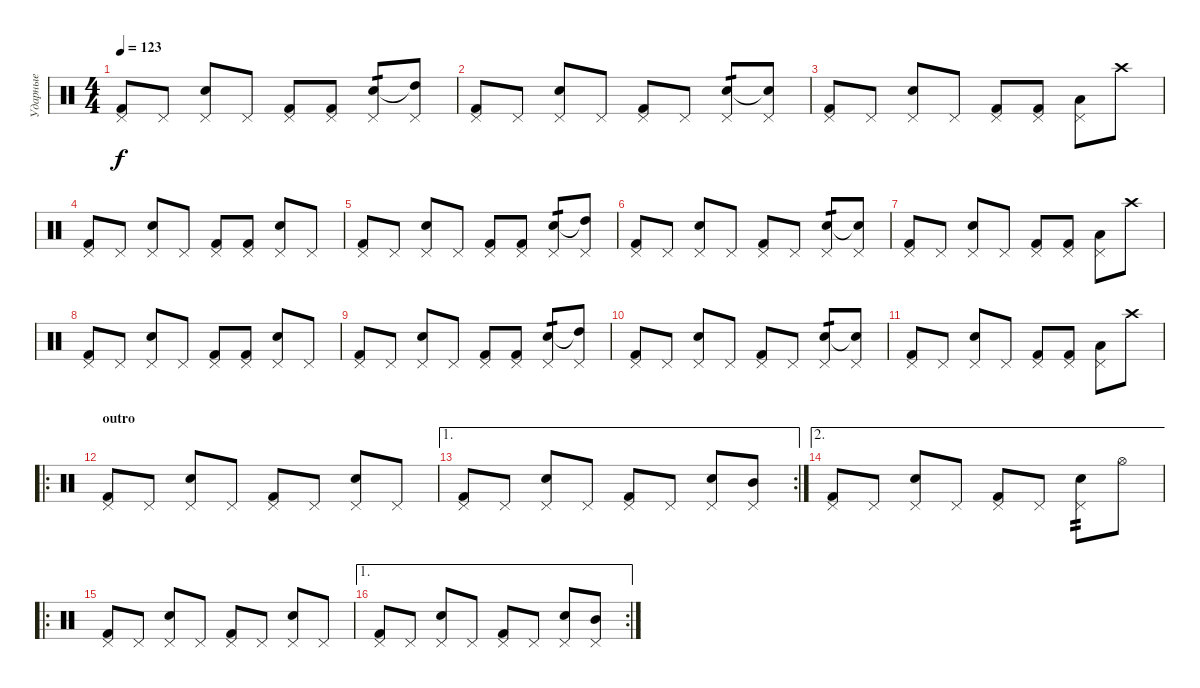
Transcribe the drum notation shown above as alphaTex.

\track ("Ударные" "Ударные") {instrument percussion}
\staff {score}
\articulation defaults
\ts (4 4)
\tempo 123
\clef neutral
\ks c
("Pedal Hi-Hat (hit)" "Kick (hit) 2").8{dy f} "Pedal Hi-Hat (hit)".8 ("Pedal Hi-Hat (hit)" "Snare (hit) 2").8 "Pedal Hi-Hat (hit)".8 ("Pedal Hi-Hat (hit)" "Kick (hit) 2").8 ("Pedal Hi-Hat (hit)" "Kick (hit) 2").8 ("Pedal Hi-Hat (hit)" "Snare (hit) 2").8{tp 1} ("Pedal Hi-Hat (hit)" "High Tom (hit)"{t}).8 |
("Pedal Hi-Hat (hit)" "Kick (hit) 2").8 "Pedal Hi-Hat (hit)".8 ("Pedal Hi-Hat (hit)" "Snare (hit) 2").8 "Pedal Hi-Hat (hit)".8 ("Pedal Hi-Hat (hit)" "Kick (hit) 2").8 "Pedal Hi-Hat (hit)".8 ("Pedal Hi-Hat (hit)" "Snare (hit) 2").8{tp 1} ("Pedal Hi-Hat (hit)" "Snare (hit)"{t}).8 |
("Pedal Hi-Hat (hit)" "Kick (hit) 2").8 "Pedal Hi-Hat (hit)".8 ("Pedal Hi-Hat (hit)" "Snare (hit) 2").8 "Pedal Hi-Hat (hit)".8 ("Pedal Hi-Hat (hit)" "Kick (hit) 2").8 ("Pedal Hi-Hat (hit)" "Kick (hit) 2").8 ("Pedal Hi-Hat (hit)" "Low Tom (hit)").8 "Crash high (hit)".8 |
("Pedal Hi-Hat (hit)" "Kick (hit) 2").8 "Pedal Hi-Hat (hit)".8 ("Pedal Hi-Hat (hit)" "Snare (hit) 2").8 "Pedal Hi-Hat (hit)".8 ("Pedal Hi-Hat (hit)" "Kick (hit) 2").8 ("Pedal Hi-Hat (hit)" "Kick (hit) 2").8 ("Pedal Hi-Hat (hit)" "Snare (hit) 2").8 "Pedal Hi-Hat (hit)".8 |
("Pedal Hi-Hat (hit)" "Kick (hit) 2").8 "Pedal Hi-Hat (hit)".8 ("Pedal Hi-Hat (hit)" "Snare (hit) 2").8 "Pedal Hi-Hat (hit)".8 ("Pedal Hi-Hat (hit)" "Kick (hit) 2").8 ("Pedal Hi-Hat (hit)" "Kick (hit) 2").8 ("Pedal Hi-Hat (hit)" "Snare (hit) 2").8{tp 1} ("Pedal Hi-Hat (hit)" "High Tom (hit)"{t}).8 |
("Pedal Hi-Hat (hit)" "Kick (hit) 2").8 "Pedal Hi-Hat (hit)".8 ("Pedal Hi-Hat (hit)" "Snare (hit) 2").8 "Pedal Hi-Hat (hit)".8 ("Pedal Hi-Hat (hit)" "Kick (hit) 2").8 "Pedal Hi-Hat (hit)".8 ("Pedal Hi-Hat (hit)" "Snare (hit) 2").8{tp 1} ("Pedal Hi-Hat (hit)" "Snare (hit)"{t}).8 |
("Pedal Hi-Hat (hit)" "Kick (hit) 2").8 "Pedal Hi-Hat (hit)".8 ("Pedal Hi-Hat (hit)" "Snare (hit) 2").8 "Pedal Hi-Hat (hit)".8 ("Pedal Hi-Hat (hit)" "Kick (hit) 2").8 ("Pedal Hi-Hat (hit)" "Kick (hit) 2").8 ("Pedal Hi-Hat (hit)" "Low Tom (hit)").8 "Crash high (hit)".8 |
("Pedal Hi-Hat (hit)" "Kick (hit) 2").8 "Pedal Hi-Hat (hit)".8 ("Pedal Hi-Hat (hit)" "Snare (hit) 2").8 "Pedal Hi-Hat (hit)".8 ("Pedal Hi-Hat (hit)" "Kick (hit) 2").8 ("Pedal Hi-Hat (hit)" "Kick (hit) 2").8 ("Pedal Hi-Hat (hit)" "Snare (hit) 2").8 "Pedal Hi-Hat (hit)".8 |
("Pedal Hi-Hat (hit)" "Kick (hit) 2").8 "Pedal Hi-Hat (hit)".8 ("Pedal Hi-Hat (hit)" "Snare (hit) 2").8 "Pedal Hi-Hat (hit)".8 ("Pedal Hi-Hat (hit)" "Kick (hit) 2").8 ("Pedal Hi-Hat (hit)" "Kick (hit) 2").8 ("Pedal Hi-Hat (hit)" "Snare (hit) 2").8{tp 1} ("Pedal Hi-Hat (hit)" "High Tom (hit)"{t}).8 |
("Pedal Hi-Hat (hit)" "Kick (hit) 2").8 "Pedal Hi-Hat (hit)".8 ("Pedal Hi-Hat (hit)" "Snare (hit) 2").8 "Pedal Hi-Hat (hit)".8 ("Pedal Hi-Hat (hit)" "Kick (hit) 2").8 "Pedal Hi-Hat (hit)".8 ("Pedal Hi-Hat (hit)" "Snare (hit) 2").8{tp 1} ("Pedal Hi-Hat (hit)" "Snare (hit)"{t}).8 |
("Pedal Hi-Hat (hit)" "Kick (hit) 2").8 "Pedal Hi-Hat (hit)".8 ("Pedal Hi-Hat (hit)" "Snare (hit) 2").8 "Pedal Hi-Hat (hit)".8 ("Pedal Hi-Hat (hit)" "Kick (hit) 2").8 ("Pedal Hi-Hat (hit)" "Kick (hit) 2").8 ("Pedal Hi-Hat (hit)" "Low Tom (hit)").8 "Crash high (hit)".8 |
\ro
\section ("" "outro")
("Pedal Hi-Hat (hit)" "Kick (hit) 2").8 "Pedal Hi-Hat (hit)".8 ("Pedal Hi-Hat (hit)" "Snare (hit) 2").8 "Pedal Hi-Hat (hit)".8 ("Pedal Hi-Hat (hit)" "Kick (hit) 2").8 "Pedal Hi-Hat (hit)".8 ("Pedal Hi-Hat (hit)" "Snare (hit) 2").8 "Pedal Hi-Hat (hit)".8 |
\ae 1
\rc 2
("Pedal Hi-Hat (hit)" "Kick (hit) 2").8 "Pedal Hi-Hat (hit)".8 ("Pedal Hi-Hat (hit)" "Snare (hit) 2").8 "Pedal Hi-Hat (hit)".8 ("Pedal Hi-Hat (hit)" "Kick (hit) 2").8 "Pedal Hi-Hat (hit)".8 ("Pedal Hi-Hat (hit)" "Snare (hit) 2").8 ("Pedal Hi-Hat (hit)" "Mid Tom (hit)").8 |
\ae 2
("Pedal Hi-Hat (hit)" "Kick (hit) 2").8 "Pedal Hi-Hat (hit)".8 ("Pedal Hi-Hat (hit)" "Snare (hit) 2").8 "Pedal Hi-Hat (hit)".8 ("Pedal Hi-Hat (hit)" "Kick (hit) 2").8 "Pedal Hi-Hat (hit)".8 ("Pedal Hi-Hat (hit)" "Snare (hit) 2").8{tp 2} "Hi-Hat (open)".8 |
\ro
("Pedal Hi-Hat (hit)" "Kick (hit) 2").8 "Pedal Hi-Hat (hit)".8 ("Pedal Hi-Hat (hit)" "Snare (hit) 2").8 "Pedal Hi-Hat (hit)".8 ("Pedal Hi-Hat (hit)" "Kick (hit) 2").8 "Pedal Hi-Hat (hit)".8 ("Pedal Hi-Hat (hit)" "Snare (hit) 2").8 "Pedal Hi-Hat (hit)".8 |
\ae 1
\rc 2
("Pedal Hi-Hat (hit)" "Kick (hit) 2").8 "Pedal Hi-Hat (hit)".8 ("Pedal Hi-Hat (hit)" "Snare (hit) 2").8 "Pedal Hi-Hat (hit)".8 ("Pedal Hi-Hat (hit)" "Kick (hit) 2").8 "Pedal Hi-Hat (hit)".8 ("Pedal Hi-Hat (hit)" "Snare (hit) 2").8 ("Pedal Hi-Hat (hit)" "Mid Tom (hit)").8
